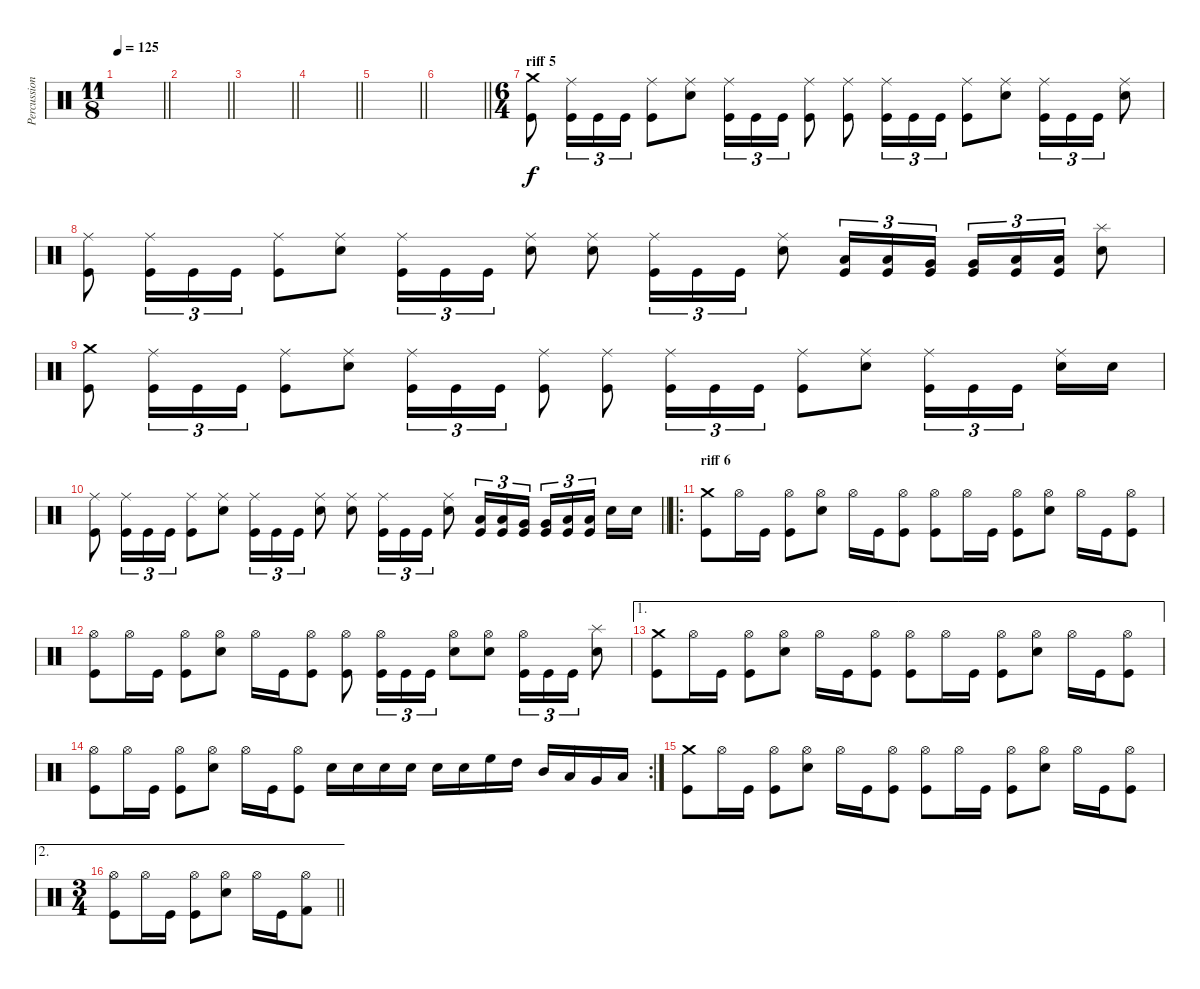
\track ("Percussion" "Percussion") {instrument percussion}
\staff {score}
\articulation defaults
\ts (11 8)
\tempo 125
\clef neutral
\barLineRight lightlight
\ks c
|
\barLineRight lightlight
|
\barLineRight lightlight
|
\barLineRight lightlight
|
\barLineRight lightlight
|
\barLineRight lightlight
|
\ts (6 4)
\section ("" "riff 5")
("Kick (hit)" "Crash medium (hit)").8 ("Kick (hit)" "Ride (middle)").16{tu (3 2)} "Kick (hit)".16{tu (3 2)} "Kick (hit)".16{tu (3 2)} ("Kick (hit)" "Ride (middle)").8 ("Ride (middle)" "Electric Snare (hit)").8 ("Kick (hit)" "Ride (middle)").16{tu (3 2)} "Kick (hit)".16{tu (3 2)} "Kick (hit)".16{tu (3 2)} ("Kick (hit)" "Ride (middle)").8 ("Kick (hit)" "Ride (middle)").8 ("Kick (hit)" "Ride (middle)").16{tu (3 2)} "Kick (hit)".16{tu (3 2)} "Kick (hit)".16{tu (3 2)} ("Kick (hit)" "Ride (middle)").8 ("Ride (middle)" "Electric Snare (hit)").8 ("Kick (hit)" "Ride (middle)").16{tu (3 2)} "Kick (hit)".16{tu (3 2)} "Kick (hit)".16{tu (3 2)} ("Ride (middle)" "Electric Snare (hit)").8 |
("Kick (hit)" "Ride (middle)").8 ("Kick (hit)" "Ride (middle)").16{tu (3 2)} "Kick (hit)".16{tu (3 2)} "Kick (hit)".16{tu (3 2)} ("Kick (hit)" "Ride (middle)").8 ("Ride (middle)" "Electric Snare (hit)").8 ("Kick (hit)" "Ride (middle)").16{tu (3 2)} "Kick (hit)".16{tu (3 2)} "Kick (hit)".16{tu (3 2)} ("Ride (middle)" "Electric Snare (hit)").8 ("Ride (middle)" "Electric Snare (hit)").8 ("Kick (hit)" "Ride (middle)").16{tu (3 2)} "Kick (hit)".16{tu (3 2)} "Kick (hit)".16{tu (3 2)} ("Ride (middle)" "Electric Snare (hit)").8 ("Kick (hit)" "Low Tom (hit)").16{tu (3 2)} ("Kick (hit)" "Low Tom (hit)").16{tu (3 2)} ("Kick (hit)" "Very Low Tom (hit)").16{tu (3 2) beam splitsecondary} ("Kick (hit)" "Very Low Tom (hit)").16{tu (3 2)} ("Kick (hit)" "Low Floor Tom (hit)").16{tu (3 2)} ("Kick (hit)" "Low Floor Tom (hit)").16{tu (3 2)} ("Electric Snare (hit)" "Splash (hit)").8 |
("Kick (hit)" "Crash medium (hit)").8 ("Kick (hit)" "Ride (middle)").16{tu (3 2)} "Kick (hit)".16{tu (3 2)} "Kick (hit)".16{tu (3 2)} ("Kick (hit)" "Ride (middle)").8 ("Ride (middle)" "Electric Snare (hit)").8 ("Kick (hit)" "Ride (middle)").16{tu (3 2)} "Kick (hit)".16{tu (3 2)} "Kick (hit)".16{tu (3 2)} ("Kick (hit)" "Ride (middle)").8 ("Kick (hit)" "Ride (middle)").8 ("Kick (hit)" "Ride (middle)").16{tu (3 2)} "Kick (hit)".16{tu (3 2)} "Kick (hit)".16{tu (3 2)} ("Kick (hit)" "Ride (middle)").8 ("Ride (middle)" "Electric Snare (hit)").8 ("Kick (hit)" "Ride (middle)").16{tu (3 2)} "Kick (hit)".16{tu (3 2)} "Kick (hit)".16{tu (3 2) beam splitsecondary} ("Ride (middle)" "Electric Snare (hit)").16 "Electric Snare (hit)".16 |
\barLineRight lightlight
("Kick (hit)" "Ride (middle)").8 ("Kick (hit)" "Ride (middle)").16{tu (3 2)} "Kick (hit)".16{tu (3 2)} "Kick (hit)".16{tu (3 2)} ("Kick (hit)" "Ride (middle)").8 ("Ride (middle)" "Electric Snare (hit)").8 ("Kick (hit)" "Ride (middle)").16{tu (3 2)} "Kick (hit)".16{tu (3 2)} "Kick (hit)".16{tu (3 2)} ("Ride (middle)" "Electric Snare (hit)").8 ("Ride (middle)" "Electric Snare (hit)").8 ("Kick (hit)" "Ride (middle)").16{tu (3 2)} "Kick (hit)".16{tu (3 2)} "Kick (hit)".16{tu (3 2)} ("Ride (middle)" "Electric Snare (hit)").8 ("Kick (hit)" "Low Tom (hit)").16{tu (3 2)} ("Kick (hit)" "Low Tom (hit)").16{tu (3 2)} ("Kick (hit)" "Very Low Tom (hit)").16{tu (3 2) beam splitsecondary} ("Kick (hit)" "Very Low Tom (hit)").16{tu (3 2)} ("Kick (hit)" "Low Floor Tom (hit)").16{tu (3 2)} ("Kick (hit)" "Low Floor Tom (hit)").16{tu (3 2) beam splitsecondary} "Electric Snare (hit)".16 "Electric Snare (hit)".16 |
\ro
\section ("" "riff 6")
("Kick (hit)" "Crash medium (hit)").8 "Hi-Hat (open)".16 "Kick (hit)".16 ("Kick (hit)" "Hi-Hat (open)").8 ("Hi-Hat (open)" "Electric Snare (hit)").8 "Hi-Hat (open)".16 "Kick (hit)".16 ("Kick (hit)" "Hi-Hat (open)").8 ("Kick (hit)" "Hi-Hat (open)").8 "Hi-Hat (open)".16 "Kick (hit)".16 ("Kick (hit)" "Hi-Hat (open)").8 ("Hi-Hat (open)" "Electric Snare (hit)").8 "Hi-Hat (open)".16 "Kick (hit)".16 ("Kick (hit)" "Hi-Hat (open)").8 |
("Kick (hit)" "Hi-Hat (open)").8 "Hi-Hat (open)".16 "Kick (hit)".16 ("Kick (hit)" "Hi-Hat (open)").8 ("Hi-Hat (open)" "Electric Snare (hit)").8 "Hi-Hat (open)".16 "Kick (hit)".16 ("Kick (hit)" "Hi-Hat (open)").8 ("Kick (hit)" "Hi-Hat (open)").8 ("Kick (hit)" "Hi-Hat (open)").16{tu (3 2)} "Kick (hit)".16{tu (3 2)} "Kick (hit)".16{tu (3 2)} ("Hi-Hat (open)" "Electric Snare (hit)").8 ("Hi-Hat (open)" "Electric Snare (hit)").8 ("Kick (hit)" "Hi-Hat (open)").16{tu (3 2)} "Kick (hit)".16{tu (3 2)} "Kick (hit)".16{tu (3 2)} ("Electric Snare (hit)" "Splash (hit)").8 |
\ae 1
("Kick (hit)" "Crash medium (hit)").8 "Hi-Hat (open)".16 "Kick (hit)".16 ("Kick (hit)" "Hi-Hat (open)").8 ("Hi-Hat (open)" "Electric Snare (hit)").8 "Hi-Hat (open)".16 "Kick (hit)".16 ("Kick (hit)" "Hi-Hat (open)").8 ("Kick (hit)" "Hi-Hat (open)").8 "Hi-Hat (open)".16 "Kick (hit)".16 ("Kick (hit)" "Hi-Hat (open)").8 ("Hi-Hat (open)" "Electric Snare (hit)").8 "Hi-Hat (open)".16 "Kick (hit)".16 ("Kick (hit)" "Hi-Hat (open)").8 |
\rc 2
("Kick (hit)" "Hi-Hat (open)").8 "Hi-Hat (open)".16 "Kick (hit)".16 ("Kick (hit)" "Hi-Hat (open)").8 ("Hi-Hat (open)" "Electric Snare (hit)").8 "Hi-Hat (open)".16 "Kick (hit)".16 ("Kick (hit)" "Hi-Hat (open)").8 "Electric Snare (hit)".16 "Electric Snare (hit)".16 "Electric Snare (hit)".16 "Electric Snare (hit)".16 "Electric Snare (hit)".16 "Electric Snare (hit)".16 "High Floor Tom (hit)".16 "High Tom (hit)".16 "Mid Tom (hit)".16 "Low Tom (hit)".16 "Very Low Tom (hit)".16 "Low Floor Tom (hit)".16 |
("Kick (hit)" "Crash medium (hit)").8 "Hi-Hat (open)".16 "Kick (hit)".16 ("Kick (hit)" "Hi-Hat (open)").8 ("Hi-Hat (open)" "Electric Snare (hit)").8 "Hi-Hat (open)".16 "Kick (hit)".16 ("Kick (hit)" "Hi-Hat (open)").8 ("Kick (hit)" "Hi-Hat (open)").8 "Hi-Hat (open)".16 "Kick (hit)".16 ("Kick (hit)" "Hi-Hat (open)").8 ("Hi-Hat (open)" "Electric Snare (hit)").8 "Hi-Hat (open)".16 "Kick (hit)".16 ("Kick (hit)" "Hi-Hat (open)").8 |
\ae 2
\ts (3 4)
\barLineRight lightlight
("Kick (hit)" "Hi-Hat (open)").8 "Hi-Hat (open)".16 "Kick (hit)".16 ("Kick (hit)" "Hi-Hat (open)").8 ("Hi-Hat (open)" "Electric Snare (hit)").8 "Hi-Hat (open)".16 "Kick (hit)".16 ("Kick (hit) 2" "Hi-Hat (open)").8
